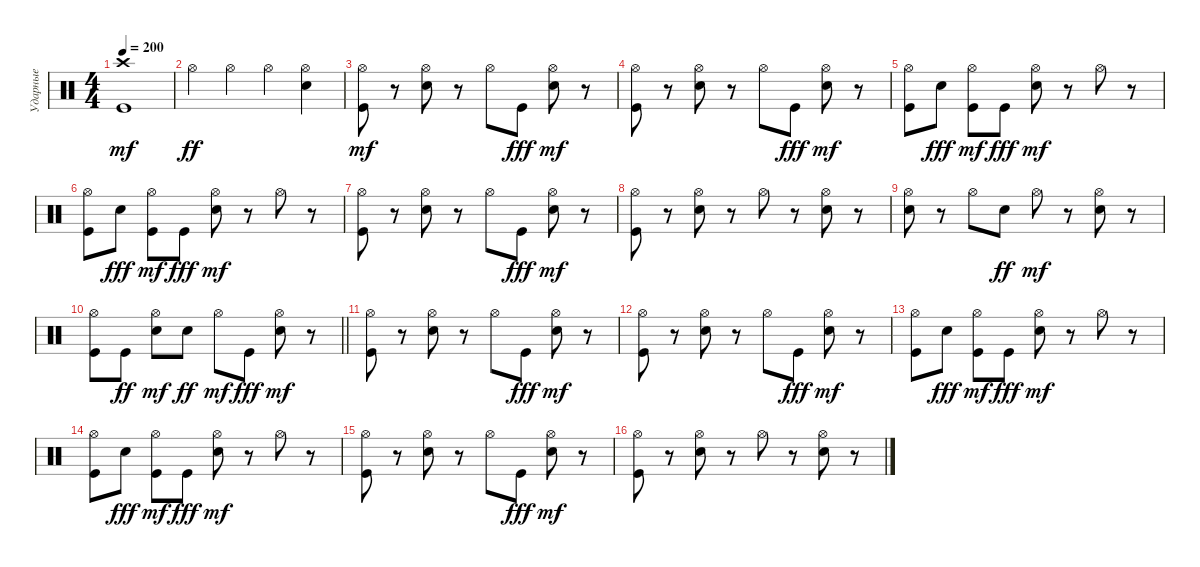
\track ("Ударные" "Ударные") {instrument percussion}
\staff {score}
\articulation defaults
\ts (4 4)
\tempo 200
\clef neutral
\ks c
("Kick (hit)" "Crash high (hit)").1{dy mf} |
"Hi-Hat (open)".4{dy ff} "Hi-Hat (open)".4 "Hi-Hat (open)".4 ("Electric Snare (hit)" "Hi-Hat (open)").4 |
("Kick (hit)" "Hi-Hat (open)").8{dy mf} r.8 ("Electric Snare (hit)" "Hi-Hat (open)").8 r.8 "Hi-Hat (open)".8 "Kick (hit)".8{dy fff} ("Electric Snare (hit)" "Hi-Hat (open)").8{dy mf} r.8 |
("Kick (hit)" "Hi-Hat (open)").8 r.8 ("Electric Snare (hit)" "Hi-Hat (open)").8 r.8 "Hi-Hat (open)".8 "Kick (hit)".8{dy fff} ("Electric Snare (hit)" "Hi-Hat (open)").8{dy mf} r.8 |
("Kick (hit)" "Hi-Hat (open)").8 "Electric Snare (hit)".8{dy fff} ("Kick (hit)" "Hi-Hat (open)").8{dy mf} "Kick (hit)".8{dy fff} ("Electric Snare (hit)" "Hi-Hat (open)").8{dy mf} r.8 "Hi-Hat (open)".8 r.8 |
("Kick (hit)" "Hi-Hat (open)").8 "Electric Snare (hit)".8{dy fff} ("Kick (hit)" "Hi-Hat (open)").8{dy mf} "Kick (hit)".8{dy fff} ("Electric Snare (hit)" "Hi-Hat (open)").8{dy mf} r.8 "Hi-Hat (open)".8 r.8 |
("Kick (hit)" "Hi-Hat (open)").8 r.8 ("Electric Snare (hit)" "Hi-Hat (open)").8 r.8 "Hi-Hat (open)".8 "Kick (hit)".8{dy fff} ("Electric Snare (hit)" "Hi-Hat (open)").8{dy mf} r.8 |
("Kick (hit)" "Hi-Hat (open)").8 r.8 ("Electric Snare (hit)" "Hi-Hat (open)").8 r.8 "Hi-Hat (open)".8 r.8 ("Electric Snare (hit)" "Hi-Hat (open)").8 r.8 |
("Electric Snare (hit)" "Hi-Hat (open)").8 r.8 "Hi-Hat (open)".8 "Electric Snare (hit)".8{dy ff} "Hi-Hat (open)".8{dy mf} r.8 ("Electric Snare (hit)" "Hi-Hat (open)").8 r.8 |
\barLineRight lightlight
("Kick (hit)" "Hi-Hat (open)").8 "Kick (hit)".8{dy ff} ("Electric Snare (hit)" "Hi-Hat (open)").8{dy mf} "Electric Snare (hit)".8{dy ff} "Hi-Hat (open)".8{dy mf} "Kick (hit)".8{dy fff} ("Electric Snare (hit)" "Hi-Hat (open)").8{dy mf} r.8 |
("Kick (hit)" "Hi-Hat (open)").8 r.8 ("Electric Snare (hit)" "Hi-Hat (open)").8 r.8 "Hi-Hat (open)".8 "Kick (hit)".8{dy fff} ("Electric Snare (hit)" "Hi-Hat (open)").8{dy mf} r.8 |
("Kick (hit)" "Hi-Hat (open)").8 r.8 ("Electric Snare (hit)" "Hi-Hat (open)").8 r.8 "Hi-Hat (open)".8 "Kick (hit)".8{dy fff} ("Electric Snare (hit)" "Hi-Hat (open)").8{dy mf} r.8 |
("Kick (hit)" "Hi-Hat (open)").8 "Electric Snare (hit)".8{dy fff} ("Kick (hit)" "Hi-Hat (open)").8{dy mf} "Kick (hit)".8{dy fff} ("Electric Snare (hit)" "Hi-Hat (open)").8{dy mf} r.8 "Hi-Hat (open)".8 r.8 |
("Kick (hit)" "Hi-Hat (open)").8 "Electric Snare (hit)".8{dy fff} ("Kick (hit)" "Hi-Hat (open)").8{dy mf} "Kick (hit)".8{dy fff} ("Electric Snare (hit)" "Hi-Hat (open)").8{dy mf} r.8 "Hi-Hat (open)".8 r.8 |
("Kick (hit)" "Hi-Hat (open)").8 r.8 ("Electric Snare (hit)" "Hi-Hat (open)").8 r.8 "Hi-Hat (open)".8 "Kick (hit)".8{dy fff} ("Electric Snare (hit)" "Hi-Hat (open)").8{dy mf} r.8 |
("Kick (hit)" "Hi-Hat (open)").8 r.8 ("Electric Snare (hit)" "Hi-Hat (open)").8 r.8 "Hi-Hat (open)".8 r.8 ("Electric Snare (hit)" "Hi-Hat (open)").8 r.8
